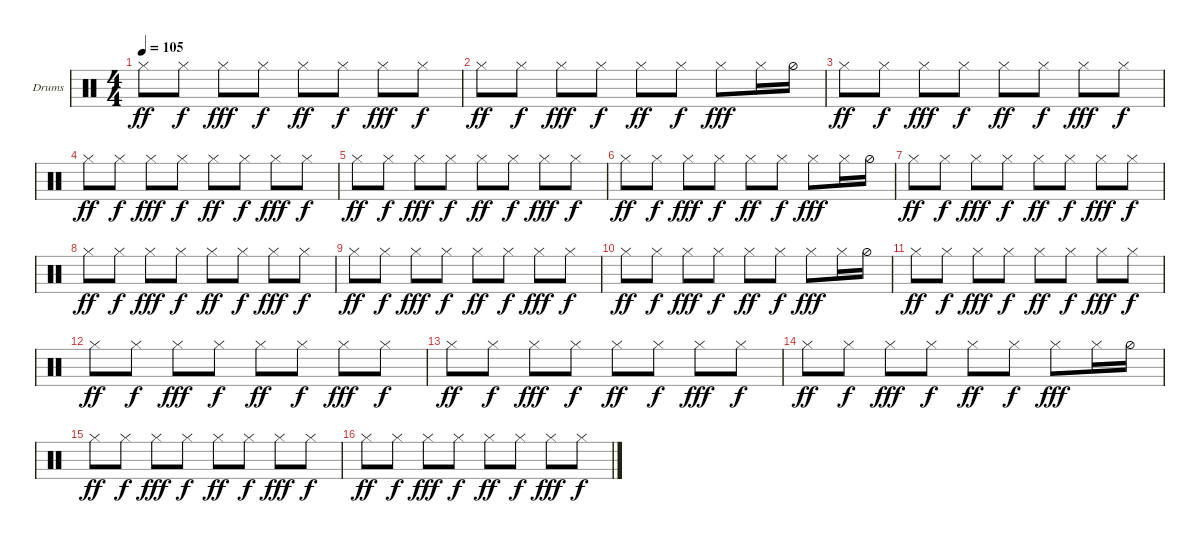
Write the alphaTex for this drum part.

\defaultSystemsLayout 4
\bracketExtendMode groupsimilarinstruments
\firstSystemTrackNameOrientation horizontal
\otherSystemsTrackNameOrientation horizontal
\track ("Helders" "Drums") {instrument percussion}
\staff {score}
\articulation defaults
\ts (4 4)
\tempo 105
\clef neutral
\ks c "Hi-Hat (closed)".8{dy ff} "Hi-Hat (closed)".8{dy f} "Hi-Hat (closed)".8{dy fff} "Hi-Hat (closed)".8{dy f} "Hi-Hat (closed)".8{dy ff} "Hi-Hat (closed)".8{dy f} "Hi-Hat (closed)".8{dy fff} "Hi-Hat (closed)".8{dy f}
|
"Hi-Hat (closed)".8{dy ff} "Hi-Hat (closed)".8{dy f} "Hi-Hat (closed)".8{dy fff} "Hi-Hat (closed)".8{dy f} "Hi-Hat (closed)".8{dy ff} "Hi-Hat (closed)".8{dy f} "Hi-Hat (closed)".8{dy fff} "Hi-Hat (closed)".16 "Hi-Hat (half)".16 |
"Hi-Hat (closed)".8{dy ff} "Hi-Hat (closed)".8{dy f} "Hi-Hat (closed)".8{dy fff} "Hi-Hat (closed)".8{dy f} "Hi-Hat (closed)".8{dy ff} "Hi-Hat (closed)".8{dy f} "Hi-Hat (closed)".8{dy fff} "Hi-Hat (closed)".8{dy f} |
"Hi-Hat (closed)".8{dy ff} "Hi-Hat (closed)".8{dy f} "Hi-Hat (closed)".8{dy fff} "Hi-Hat (closed)".8{dy f} "Hi-Hat (closed)".8{dy ff} "Hi-Hat (closed)".8{dy f} "Hi-Hat (closed)".8{dy fff} "Hi-Hat (closed)".8{dy f} |
"Hi-Hat (closed)".8{dy ff} "Hi-Hat (closed)".8{dy f} "Hi-Hat (closed)".8{dy fff} "Hi-Hat (closed)".8{dy f} "Hi-Hat (closed)".8{dy ff} "Hi-Hat (closed)".8{dy f} "Hi-Hat (closed)".8{dy fff} "Hi-Hat (closed)".8{dy f} |
"Hi-Hat (closed)".8{dy ff} "Hi-Hat (closed)".8{dy f} "Hi-Hat (closed)".8{dy fff} "Hi-Hat (closed)".8{dy f} "Hi-Hat (closed)".8{dy ff} "Hi-Hat (closed)".8{dy f} "Hi-Hat (closed)".8{dy fff} "Hi-Hat (closed)".16 "Hi-Hat (half)".16 |
"Hi-Hat (closed)".8{dy ff} "Hi-Hat (closed)".8{dy f} "Hi-Hat (closed)".8{dy fff} "Hi-Hat (closed)".8{dy f} "Hi-Hat (closed)".8{dy ff} "Hi-Hat (closed)".8{dy f} "Hi-Hat (closed)".8{dy fff} "Hi-Hat (closed)".8{dy f} |
"Hi-Hat (closed)".8{dy ff} "Hi-Hat (closed)".8{dy f} "Hi-Hat (closed)".8{dy fff} "Hi-Hat (closed)".8{dy f} "Hi-Hat (closed)".8{dy ff} "Hi-Hat (closed)".8{dy f} "Hi-Hat (closed)".8{dy fff} "Hi-Hat (closed)".8{dy f} |
"Hi-Hat (closed)".8{dy ff} "Hi-Hat (closed)".8{dy f} "Hi-Hat (closed)".8{dy fff} "Hi-Hat (closed)".8{dy f} "Hi-Hat (closed)".8{dy ff} "Hi-Hat (closed)".8{dy f} "Hi-Hat (closed)".8{dy fff} "Hi-Hat (closed)".8{dy f} |
"Hi-Hat (closed)".8{dy ff} "Hi-Hat (closed)".8{dy f} "Hi-Hat (closed)".8{dy fff} "Hi-Hat (closed)".8{dy f} "Hi-Hat (closed)".8{dy ff} "Hi-Hat (closed)".8{dy f} "Hi-Hat (closed)".8{dy fff} "Hi-Hat (closed)".16 "Hi-Hat (half)".16 |
"Hi-Hat (closed)".8{dy ff} "Hi-Hat (closed)".8{dy f} "Hi-Hat (closed)".8{dy fff} "Hi-Hat (closed)".8{dy f} "Hi-Hat (closed)".8{dy ff} "Hi-Hat (closed)".8{dy f} "Hi-Hat (closed)".8{dy fff} "Hi-Hat (closed)".8{dy f} |
"Hi-Hat (closed)".8{dy ff} "Hi-Hat (closed)".8{dy f} "Hi-Hat (closed)".8{dy fff} "Hi-Hat (closed)".8{dy f} "Hi-Hat (closed)".8{dy ff} "Hi-Hat (closed)".8{dy f} "Hi-Hat (closed)".8{dy fff} "Hi-Hat (closed)".8{dy f} |
"Hi-Hat (closed)".8{dy ff} "Hi-Hat (closed)".8{dy f} "Hi-Hat (closed)".8{dy fff} "Hi-Hat (closed)".8{dy f} "Hi-Hat (closed)".8{dy ff} "Hi-Hat (closed)".8{dy f} "Hi-Hat (closed)".8{dy fff} "Hi-Hat (closed)".8{dy f} |
"Hi-Hat (closed)".8{dy ff} "Hi-Hat (closed)".8{dy f} "Hi-Hat (closed)".8{dy fff} "Hi-Hat (closed)".8{dy f} "Hi-Hat (closed)".8{dy ff} "Hi-Hat (closed)".8{dy f} "Hi-Hat (closed)".8{dy fff} "Hi-Hat (closed)".16 "Hi-Hat (half)".16 |
"Hi-Hat (closed)".8{dy ff} "Hi-Hat (closed)".8{dy f} "Hi-Hat (closed)".8{dy fff} "Hi-Hat (closed)".8{dy f} "Hi-Hat (closed)".8{dy ff} "Hi-Hat (closed)".8{dy f} "Hi-Hat (closed)".8{dy fff} "Hi-Hat (closed)".8{dy f} |
"Hi-Hat (closed)".8{dy ff} "Hi-Hat (closed)".8{dy f} "Hi-Hat (closed)".8{dy fff} "Hi-Hat (closed)".8{dy f} "Hi-Hat (closed)".8{dy ff} "Hi-Hat (closed)".8{dy f} "Hi-Hat (closed)".8{dy fff} "Hi-Hat (closed)".8{dy f}
